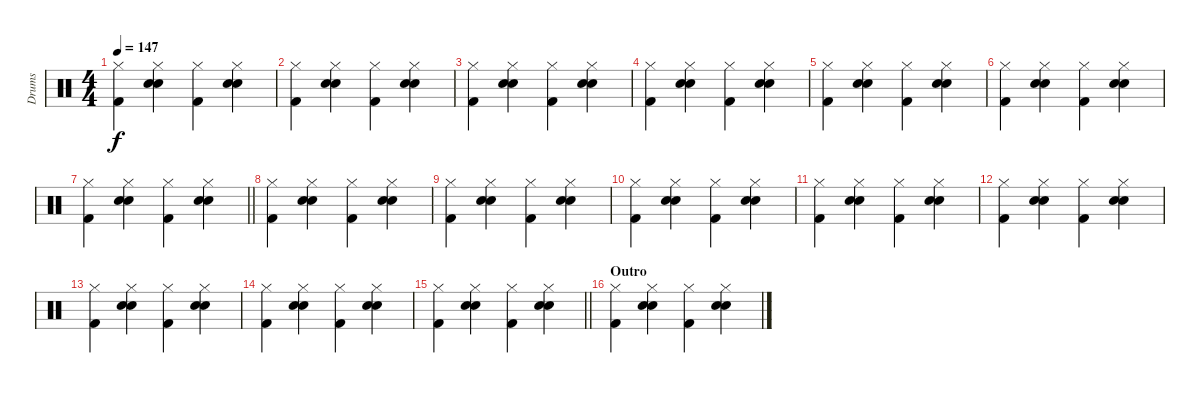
\track ("Drums" "Drums") {instrument percussion}
\staff {score}
\articulation defaults
\ts (4 4)
\tempo 147
\clef neutral
\ks c
("Hi-Hat (closed)" "Kick (hit) 2").4{dy f} ("Hi-Hat (closed)" "Electric Snare (hit)" "Hand Clap (hit)").4 ("Hi-Hat (closed)" "Kick (hit) 2").4 ("Hi-Hat (closed)" "Electric Snare (hit)" "Hand Clap (hit)").4 |
("Hi-Hat (closed)" "Kick (hit) 2").4 ("Hi-Hat (closed)" "Electric Snare (hit)" "Hand Clap (hit)").4 ("Hi-Hat (closed)" "Kick (hit) 2").4 ("Hi-Hat (closed)" "Electric Snare (hit)" "Hand Clap (hit)").4 |
("Hi-Hat (closed)" "Kick (hit) 2").4 ("Hi-Hat (closed)" "Electric Snare (hit)" "Hand Clap (hit)").4 ("Hi-Hat (closed)" "Kick (hit) 2").4 ("Hi-Hat (closed)" "Electric Snare (hit)" "Hand Clap (hit)").4 |
("Hi-Hat (closed)" "Kick (hit) 2").4 ("Hi-Hat (closed)" "Electric Snare (hit)" "Hand Clap (hit)").4 ("Hi-Hat (closed)" "Kick (hit) 2").4 ("Hi-Hat (closed)" "Electric Snare (hit)" "Hand Clap (hit)").4 |
("Hi-Hat (closed)" "Kick (hit) 2").4 ("Hi-Hat (closed)" "Electric Snare (hit)" "Hand Clap (hit)").4 ("Hi-Hat (closed)" "Kick (hit) 2").4 ("Hi-Hat (closed)" "Electric Snare (hit)" "Hand Clap (hit)").4 |
("Hi-Hat (closed)" "Kick (hit) 2").4 ("Hi-Hat (closed)" "Electric Snare (hit)" "Hand Clap (hit)").4 ("Hi-Hat (closed)" "Kick (hit) 2").4 ("Hi-Hat (closed)" "Electric Snare (hit)" "Hand Clap (hit)").4 |
\barLineRight lightlight
("Hi-Hat (closed)" "Kick (hit) 2").4 ("Hi-Hat (closed)" "Electric Snare (hit)" "Hand Clap (hit)").4 ("Hi-Hat (closed)" "Kick (hit) 2").4 ("Hi-Hat (closed)" "Electric Snare (hit)" "Hand Clap (hit)").4 |
("Hi-Hat (closed)" "Kick (hit) 2").4 ("Hi-Hat (closed)" "Electric Snare (hit)" "Hand Clap (hit)").4 ("Hi-Hat (closed)" "Kick (hit) 2").4 ("Hi-Hat (closed)" "Electric Snare (hit)" "Hand Clap (hit)").4 |
("Hi-Hat (closed)" "Kick (hit) 2").4 ("Hi-Hat (closed)" "Electric Snare (hit)" "Hand Clap (hit)").4 ("Hi-Hat (closed)" "Kick (hit) 2").4 ("Hi-Hat (closed)" "Electric Snare (hit)" "Hand Clap (hit)").4 |
("Hi-Hat (closed)" "Kick (hit) 2").4 ("Hi-Hat (closed)" "Electric Snare (hit)" "Hand Clap (hit)").4 ("Hi-Hat (closed)" "Kick (hit) 2").4 ("Hi-Hat (closed)" "Electric Snare (hit)" "Hand Clap (hit)").4 |
("Hi-Hat (closed)" "Kick (hit) 2").4 ("Hi-Hat (closed)" "Electric Snare (hit)" "Hand Clap (hit)").4 ("Hi-Hat (closed)" "Kick (hit) 2").4 ("Hi-Hat (closed)" "Electric Snare (hit)" "Hand Clap (hit)").4 |
("Hi-Hat (closed)" "Kick (hit) 2").4 ("Hi-Hat (closed)" "Electric Snare (hit)" "Hand Clap (hit)").4 ("Hi-Hat (closed)" "Kick (hit) 2").4 ("Hi-Hat (closed)" "Electric Snare (hit)" "Hand Clap (hit)").4 |
("Hi-Hat (closed)" "Kick (hit) 2").4 ("Hi-Hat (closed)" "Electric Snare (hit)" "Hand Clap (hit)").4 ("Hi-Hat (closed)" "Kick (hit) 2").4 ("Hi-Hat (closed)" "Electric Snare (hit)" "Hand Clap (hit)").4 |
("Hi-Hat (closed)" "Kick (hit) 2").4 ("Hi-Hat (closed)" "Electric Snare (hit)" "Hand Clap (hit)").4 ("Hi-Hat (closed)" "Kick (hit) 2").4 ("Hi-Hat (closed)" "Electric Snare (hit)" "Hand Clap (hit)").4 |
\barLineRight lightlight
("Hi-Hat (closed)" "Kick (hit) 2").4 ("Hi-Hat (closed)" "Electric Snare (hit)" "Hand Clap (hit)").4 ("Hi-Hat (closed)" "Kick (hit) 2").4 ("Hi-Hat (closed)" "Electric Snare (hit)" "Hand Clap (hit)").4 |
\section ("" "Outro")
("Hi-Hat (closed)" "Kick (hit) 2").4 ("Hi-Hat (closed)" "Electric Snare (hit)" "Hand Clap (hit)").4 ("Hi-Hat (closed)" "Kick (hit) 2").4 ("Hi-Hat (closed)" "Electric Snare (hit)" "Hand Clap (hit)").4
